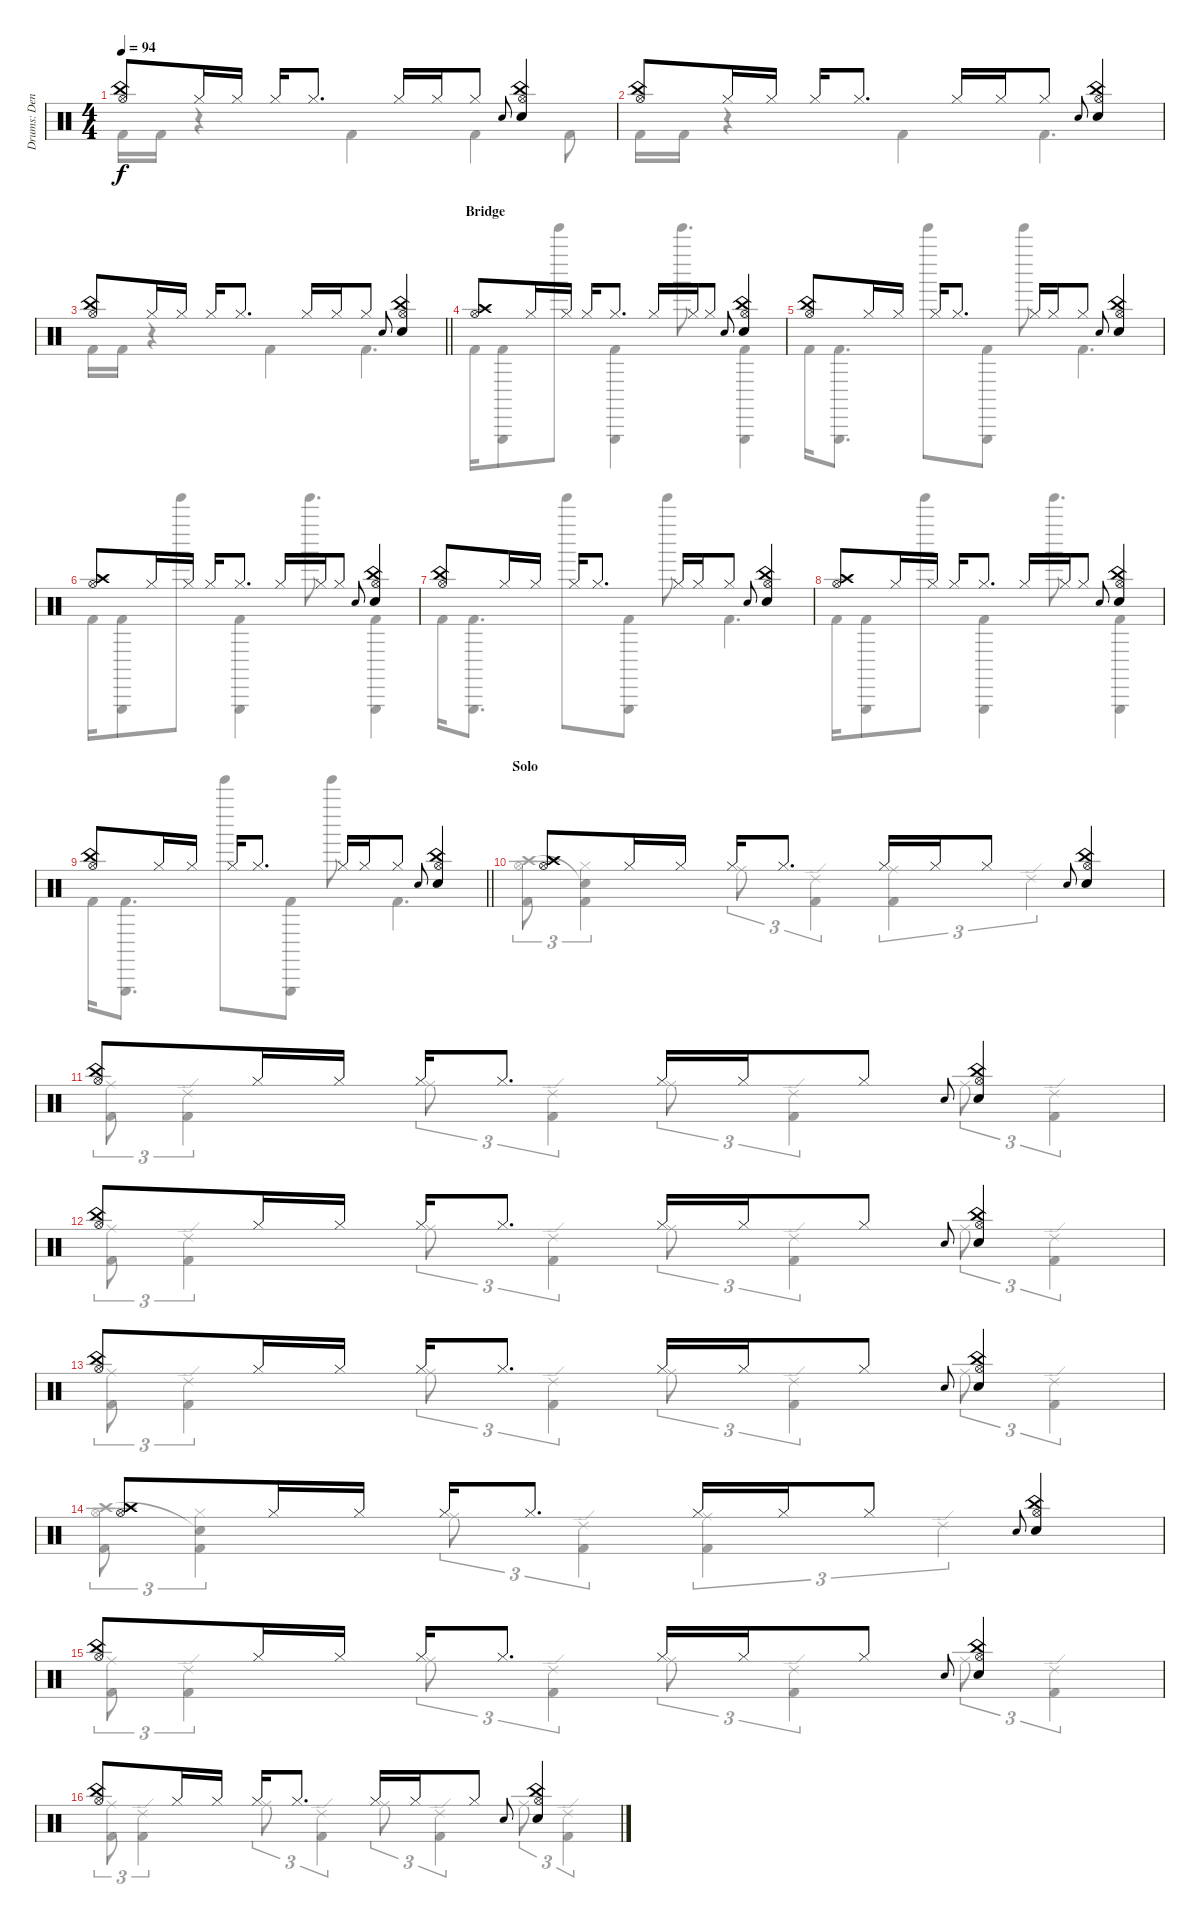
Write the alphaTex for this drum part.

\track ("Drums: Denny" "Drums: Den") {instrument percussion}
\staff {score}
\articulation defaults
\voice
\ts (4 4)
\tempo 94
\clef neutral
\ks c
("China (hit)" "Hi-Hat (open)").8{dy f} "Hi-Hat (closed)".16 "Hi-Hat (closed)".16 "Hi-Hat (closed)".16 "Hi-Hat (closed)".8{d} "Hi-Hat (closed)".16 "Hi-Hat (closed)".16 "Hi-Hat (closed)".8 "Electric Snare (hit)".8{gr onbeat} ("China (hit)" "Hi-Hat (open)" "Snare (hit) 2").4 |
("China (hit)" "Hi-Hat (open)").8 "Hi-Hat (closed)".16 "Hi-Hat (closed)".16 "Hi-Hat (closed)".16 "Hi-Hat (closed)".8{d} "Hi-Hat (closed)".16 "Hi-Hat (closed)".16 "Hi-Hat (closed)".8 "Electric Snare (hit)".8{gr onbeat} ("China (hit)" "Hi-Hat (open)" "Snare (hit) 2").4 |
\barLineRight lightlight
("China (hit)" "Hi-Hat (open)").8 "Hi-Hat (closed)".16 "Hi-Hat (closed)".16 "Hi-Hat (closed)".16 "Hi-Hat (closed)".8{d} "Hi-Hat (closed)".16 "Hi-Hat (closed)".16 "Hi-Hat (closed)".8 "Electric Snare (hit)".8{gr onbeat} ("China (hit)" "Hi-Hat (open)" "Snare (hit) 2").4 |
\section ("" "Bridge")
("Crash high (hit)" "Hi-Hat (open)").8 "Hi-Hat (closed)".16 "Hi-Hat (closed)".16 "Hi-Hat (closed)".16 "Hi-Hat (closed)".8{d} "Hi-Hat (closed)".16 "Hi-Hat (closed)".16 "Hi-Hat (closed)".8 "Electric Snare (hit)".8{gr onbeat} ("China (hit)" "Hi-Hat (open)" "Snare (hit) 2").4 |
("China (hit)" "Hi-Hat (open)").8 "Hi-Hat (closed)".16 "Hi-Hat (closed)".16 "Hi-Hat (closed)".16 "Hi-Hat (closed)".8{d} "Hi-Hat (closed)".16 "Hi-Hat (closed)".16 "Hi-Hat (closed)".8 "Electric Snare (hit)".8{gr onbeat} ("China (hit)" "Hi-Hat (open)" "Snare (hit) 2").4 |
("Crash high (hit)" "Hi-Hat (open)").8 "Hi-Hat (closed)".16 "Hi-Hat (closed)".16 "Hi-Hat (closed)".16 "Hi-Hat (closed)".8{d} "Hi-Hat (closed)".16 "Hi-Hat (closed)".16 "Hi-Hat (closed)".8 "Electric Snare (hit)".8{gr onbeat} ("China (hit)" "Hi-Hat (open)" "Snare (hit) 2").4 |
("China (hit)" "Hi-Hat (open)").8 "Hi-Hat (closed)".16 "Hi-Hat (closed)".16 "Hi-Hat (closed)".16 "Hi-Hat (closed)".8{d} "Hi-Hat (closed)".16 "Hi-Hat (closed)".16 "Hi-Hat (closed)".8 "Electric Snare (hit)".8{gr onbeat} ("China (hit)" "Hi-Hat (open)" "Snare (hit) 2").4 |
("Crash high (hit)" "Hi-Hat (open)").8 "Hi-Hat (closed)".16 "Hi-Hat (closed)".16 "Hi-Hat (closed)".16 "Hi-Hat (closed)".8{d} "Hi-Hat (closed)".16 "Hi-Hat (closed)".16 "Hi-Hat (closed)".8 "Electric Snare (hit)".8{gr onbeat} ("China (hit)" "Hi-Hat (open)" "Snare (hit) 2").4 |
\barLineRight lightlight
("China (hit)" "Hi-Hat (open)").8 "Hi-Hat (closed)".16 "Hi-Hat (closed)".16 "Hi-Hat (closed)".16 "Hi-Hat (closed)".8{d} "Hi-Hat (closed)".16 "Hi-Hat (closed)".16 "Hi-Hat (closed)".8 "Electric Snare (hit)".8{gr onbeat} ("China (hit)" "Hi-Hat (open)" "Snare (hit) 2").4 |
\section ("" "Solo")
("Crash high (hit)" "Hi-Hat (open)").8 "Hi-Hat (closed)".16 "Hi-Hat (closed)".16 "Hi-Hat (closed)".16 "Hi-Hat (closed)".8{d} "Hi-Hat (closed)".16 "Hi-Hat (closed)".16 "Hi-Hat (closed)".8 "Electric Snare (hit)".8{gr onbeat} ("China (hit)" "Hi-Hat (open)" "Snare (hit) 2").4 |
("China (hit)" "Hi-Hat (open)").8 "Hi-Hat (closed)".16 "Hi-Hat (closed)".16 "Hi-Hat (closed)".16 "Hi-Hat (closed)".8{d} "Hi-Hat (closed)".16 "Hi-Hat (closed)".16 "Hi-Hat (closed)".8 "Electric Snare (hit)".8{gr onbeat} ("China (hit)" "Hi-Hat (open)" "Snare (hit) 2").4 |
("China (hit)" "Hi-Hat (open)").8 "Hi-Hat (closed)".16 "Hi-Hat (closed)".16 "Hi-Hat (closed)".16 "Hi-Hat (closed)".8{d} "Hi-Hat (closed)".16 "Hi-Hat (closed)".16 "Hi-Hat (closed)".8 "Electric Snare (hit)".8{gr onbeat} ("China (hit)" "Hi-Hat (open)" "Snare (hit) 2").4 |
("China (hit)" "Hi-Hat (open)").8 "Hi-Hat (closed)".16 "Hi-Hat (closed)".16 "Hi-Hat (closed)".16 "Hi-Hat (closed)".8{d} "Hi-Hat (closed)".16 "Hi-Hat (closed)".16 "Hi-Hat (closed)".8 "Electric Snare (hit)".8{gr onbeat} ("China (hit)" "Hi-Hat (open)" "Snare (hit) 2").4 |
("Crash high (hit)" "Hi-Hat (open)").8 "Hi-Hat (closed)".16 "Hi-Hat (closed)".16 "Hi-Hat (closed)".16 "Hi-Hat (closed)".8{d} "Hi-Hat (closed)".16 "Hi-Hat (closed)".16 "Hi-Hat (closed)".8 "Electric Snare (hit)".8{gr onbeat} ("China (hit)" "Hi-Hat (open)" "Snare (hit) 2").4 |
("China (hit)" "Hi-Hat (open)").8 "Hi-Hat (closed)".16 "Hi-Hat (closed)".16 "Hi-Hat (closed)".16 "Hi-Hat (closed)".8{d} "Hi-Hat (closed)".16 "Hi-Hat (closed)".16 "Hi-Hat (closed)".8 "Electric Snare (hit)".8{gr onbeat} ("China (hit)" "Hi-Hat (open)" "Snare (hit) 2").4 |
("China (hit)" "Hi-Hat (open)").8 "Hi-Hat (closed)".16 "Hi-Hat (closed)".16 "Hi-Hat (closed)".16 "Hi-Hat (closed)".8{d} "Hi-Hat (closed)".16 "Hi-Hat (closed)".16 "Hi-Hat (closed)".8 "Electric Snare (hit)".8{gr onbeat} ("China (hit)" "Hi-Hat (open)" "Snare (hit) 2").4
\voice
\clef neutral
\ottava regular
\simile none
\ks c "Kick (hit) 2".16{dy f} "Kick (hit) 2".16
r.4 "Kick (hit) 2".4 "Kick (hit) 2".4 "Kick (hit) 2".8 |
"Kick (hit) 2".16 "Kick (hit) 2".16 r.4 "Kick (hit) 2".4 "Kick (hit) 2".4{d} |
\barLineRight lightlight "Kick (hit) 2".16 "Kick (hit) 2".16
r.4 "Kick (hit) 2".4 "Kick (hit) 2".4{d} |
"Kick (hit) 2".16 ("Kick (hit) 2" "Triangle (hit)").8 "Tinkle Bell (hit)".8 ("Kick (hit) 2" "Triangle (hit)").4 "Tinkle Bell (hit)".8{d} ("Kick (hit) 2" "Triangle (hit)").4 |
"Kick (hit) 2".16 ("Kick (hit) 2" "Triangle (hit)").8{d} "Tinkle Bell (hit)".8 ("Kick (hit) 2" "Triangle (hit)").8 "Tinkle Bell (hit)".8 "Kick (hit) 2".4{d} |
"Kick (hit) 2".16 ("Kick (hit) 2" "Triangle (hit)").8 "Tinkle Bell (hit)".8 ("Kick (hit) 2" "Triangle (hit)").4 "Tinkle Bell (hit)".8{d} ("Kick (hit) 2" "Triangle (hit)").4 |
"Kick (hit) 2".16 ("Kick (hit) 2" "Triangle (hit)").8{d} "Tinkle Bell (hit)".8 ("Kick (hit) 2" "Triangle (hit)").8 "Tinkle Bell (hit)".8 "Kick (hit) 2".4{d} |
"Kick (hit) 2".16 ("Kick (hit) 2" "Triangle (hit)").8 "Tinkle Bell (hit)".8 ("Kick (hit) 2" "Triangle (hit)").4 "Tinkle Bell (hit)".8{d} ("Kick (hit) 2" "Triangle (hit)").4 |
\barLineRight lightlight "Kick (hit) 2".16
("Kick (hit) 2" "Triangle (hit)").8{d} "Tinkle Bell (hit)".8 ("Kick (hit) 2" "Triangle (hit)").8 "Tinkle Bell (hit)".8 "Kick (hit) 2".4{d} |
("Crash high (hit)" "Hi-Hat (open)" "Kick (hit) 2").8{tu (3 2)} ("Snare (hit)"{t} "Hi-Hat (closed)" "Kick (hit) 2").4{tu (3 2)} "Ride (middle)".8{tu (3 2)} ("Ride (edge) 2" "Kick (hit) 2").4{tu (3 2)} ("Ride (middle)" "Kick (hit) 2").4{tu (3 2)} "Ride (edge) 2".2{tu (3 2)} |
("Ride (middle)" "Kick (hit) 2").8{tu (3 2)} ("Ride (edge) 2" "Kick (hit) 2").4{tu (3 2)} "Ride (middle)".8{tu (3 2)} ("Ride (edge) 2" "Kick (hit) 2").4{tu (3 2)} "Ride (middle)".8{tu (3 2)} ("Ride (edge) 2" "Kick (hit) 2").4{tu (3 2)} "Ride (middle)".8{tu (3 2)} ("Ride (edge) 2" "Kick (hit) 2").4{tu (3 2)} |
("Ride (middle)" "Kick (hit) 2").8{tu (3 2)} ("Ride (edge) 2" "Kick (hit) 2").4{tu (3 2)} "Ride (middle)".8{tu (3 2)} ("Ride (edge) 2" "Kick (hit) 2").4{tu (3 2)} "Ride (middle)".8{tu (3 2)} ("Ride (edge) 2" "Kick (hit) 2").4{tu (3 2)} "Ride (middle)".8{tu (3 2)} ("Ride (edge) 2" "Kick (hit) 2").4{tu (3 2)} |
("Ride (middle)" "Kick (hit) 2").8{tu (3 2)} ("Ride (edge) 2" "Kick (hit) 2").4{tu (3 2)} "Ride (middle)".8{tu (3 2)} ("Ride (edge) 2" "Kick (hit) 2").4{tu (3 2)} "Ride (middle)".8{tu (3 2)} ("Ride (edge) 2" "Kick (hit) 2").4{tu (3 2)} "Ride (middle)".8{tu (3 2)} ("Ride (edge) 2" "Kick (hit) 2").4{tu (3 2)} |
("Crash high (hit)" "Hi-Hat (open)" "Kick (hit) 2").8{tu (3 2)} ("Snare (hit)"{t} "Hi-Hat (closed)" "Kick (hit) 2").4{tu (3 2)} "Ride (middle)".8{tu (3 2)} ("Ride (edge) 2" "Kick (hit) 2").4{tu (3 2)} ("Ride (middle)" "Kick (hit) 2").4{tu (3 2)} "Ride (edge) 2".2{tu (3 2)} |
("Ride (middle)" "Kick (hit) 2").8{tu (3 2)} ("Ride (edge) 2" "Kick (hit) 2").4{tu (3 2)} "Ride (middle)".8{tu (3 2)} ("Ride (edge) 2" "Kick (hit) 2").4{tu (3 2)} "Ride (middle)".8{tu (3 2)} ("Ride (edge) 2" "Kick (hit) 2").4{tu (3 2)} "Ride (middle)".8{tu (3 2)} ("Ride (edge) 2" "Kick (hit) 2").4{tu (3 2)} |
("Ride (middle)" "Kick (hit) 2").8{tu (3 2)} ("Ride (edge) 2" "Kick (hit) 2").4{tu (3 2)} "Ride (middle)".8{tu (3 2)} ("Ride (edge) 2" "Kick (hit) 2").4{tu (3 2)} "Ride (middle)".8{tu (3 2)} ("Ride (edge) 2" "Kick (hit) 2").4{tu (3 2)} "Ride (middle)".8{tu (3 2)} ("Ride (edge) 2" "Kick (hit) 2").4{tu (3 2)}
